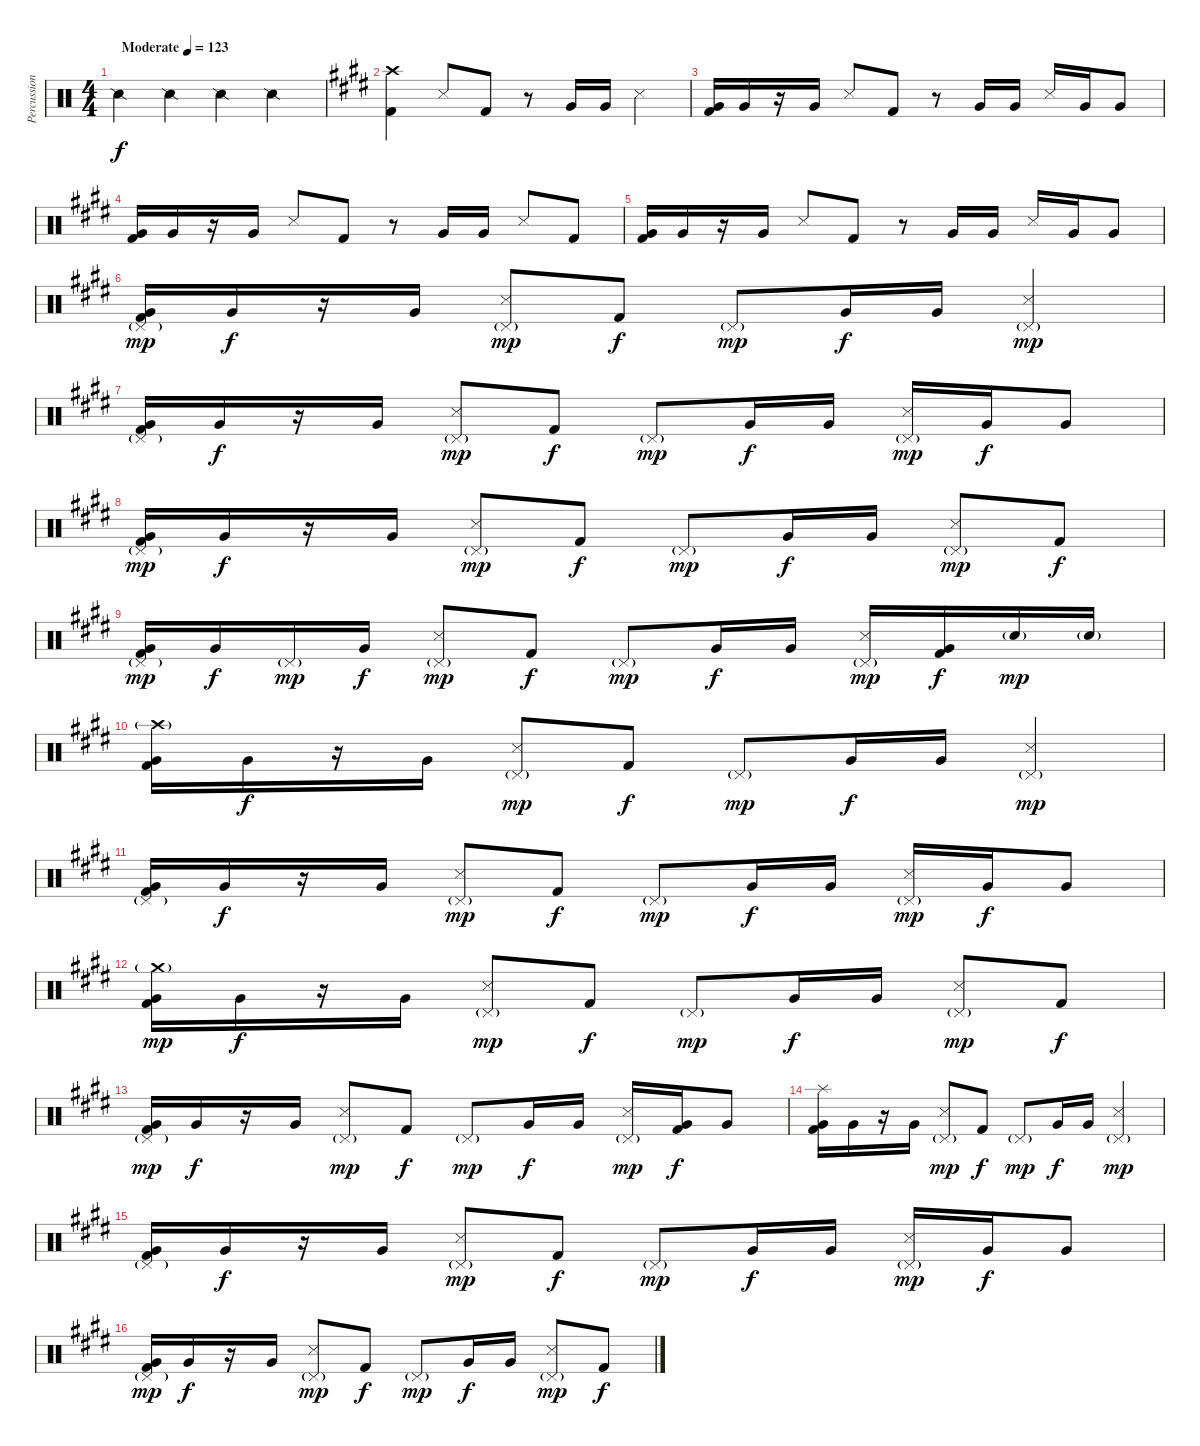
\track ("Percussioni" "Percussion") {instrument percussion}
\staff {score}
\articulation defaults
\ts (4 4)
\tempo (123 "Moderate")
\clef neutral
\ks c "Snare (side stick) 2".4{dy f} "Snare (side stick) 2".4 "Snare (side stick) 2".4 "Snare (side stick) 2".4
|
\ks e
("Crash high (hit)" "Kick (hit) 2").4 "Metronome (hit)".8 "Kick (hit) 2".8 r.8 "Very Low Tom (hit)".16 "Very Low Tom (hit)".16 "Metronome (hit)".4 |
("Very Low Tom (hit)" "Kick (hit) 2").16 "Very Low Tom (hit)".16 r.16 "Very Low Tom (hit)".16 "Metronome (hit)".8 "Kick (hit) 2".8 r.8 "Very Low Tom (hit)".16 "Very Low Tom (hit)".16 "Metronome (hit)".16 "Very Low Tom (hit)".16 "Very Low Tom (hit)".8 |
("Very Low Tom (hit)" "Kick (hit) 2").16 "Very Low Tom (hit)".16 r.16 "Very Low Tom (hit)".16 "Metronome (hit)".8 "Kick (hit) 2".8 r.8 "Very Low Tom (hit)".16 "Very Low Tom (hit)".16 "Metronome (hit)".8 "Kick (hit) 2".8 |
("Very Low Tom (hit)" "Kick (hit) 2").16 "Very Low Tom (hit)".16 r.16 "Very Low Tom (hit)".16 "Metronome (hit)".8 "Kick (hit) 2".8 r.8 "Very Low Tom (hit)".16 "Very Low Tom (hit)".16 "Metronome (hit)".16 "Very Low Tom (hit)".16 "Very Low Tom (hit)".8 |
("Pedal Hi-Hat (hit)"{g} "Very Low Tom (hit)" "Kick (hit) 2").16{dy mp} "Very Low Tom (hit)".16{dy f} r.16 "Very Low Tom (hit)".16 ("Pedal Hi-Hat (hit)"{g} "Metronome (hit)").8{dy mp} "Kick (hit) 2".8{dy f} "Pedal Hi-Hat (hit)"{g}.8{dy mp} "Very Low Tom (hit)".16{dy f} "Very Low Tom (hit)".16 ("Pedal Hi-Hat (hit)"{g} "Metronome (hit)").4{dy mp} |
("Pedal Hi-Hat (hit)"{g} "Very Low Tom (hit)" "Kick (hit) 2").16 "Very Low Tom (hit)".16{dy f} r.16 "Very Low Tom (hit)".16 ("Pedal Hi-Hat (hit)"{g} "Metronome (hit)").8{dy mp} "Kick (hit) 2".8{dy f} "Pedal Hi-Hat (hit)"{g}.8{dy mp} "Very Low Tom (hit)".16{dy f} "Very Low Tom (hit)".16 ("Pedal Hi-Hat (hit)"{g} "Metronome (hit)").16{dy mp} "Very Low Tom (hit)".16{dy f} "Very Low Tom (hit)".8 |
("Pedal Hi-Hat (hit)"{g} "Very Low Tom (hit)" "Kick (hit) 2").16{dy mp} "Very Low Tom (hit)".16{dy f} r.16 "Very Low Tom (hit)".16 ("Pedal Hi-Hat (hit)"{g} "Metronome (hit)").8{dy mp} "Kick (hit) 2".8{dy f} "Pedal Hi-Hat (hit)"{g}.8{dy mp} "Very Low Tom (hit)".16{dy f} "Very Low Tom (hit)".16 ("Pedal Hi-Hat (hit)"{g} "Metronome (hit)").8{dy mp} "Kick (hit) 2".8{dy f} |
("Pedal Hi-Hat (hit)"{g} "Very Low Tom (hit)" "Kick (hit) 2").16{dy mp} "Very Low Tom (hit)".16{dy f} "Pedal Hi-Hat (hit)"{g}.16{dy mp} "Very Low Tom (hit)".16{dy f} ("Pedal Hi-Hat (hit)"{g} "Metronome (hit)").8{dy mp} "Kick (hit) 2".8{dy f} "Pedal Hi-Hat (hit)"{g}.8{dy mp} "Very Low Tom (hit)".16{dy f} "Very Low Tom (hit)".16 ("Pedal Hi-Hat (hit)"{g} "Metronome (hit)").16{dy mp} ("Very Low Tom (hit)" "Kick (hit) 2").16{dy f} "Electric Snare (hit)"{g}.16{dy mp} "Electric Snare (hit)"{g}.16 |
("Crash high (hit)"{g} "Very Low Tom (hit)" "Kick (hit) 2").16 "Very Low Tom (hit)".16{dy f} r.16 "Very Low Tom (hit)".16 ("Pedal Hi-Hat (hit)"{g} "Metronome (hit)").8{dy mp} "Kick (hit) 2".8{dy f} "Pedal Hi-Hat (hit)"{g}.8{dy mp} "Very Low Tom (hit)".16{dy f} "Very Low Tom (hit)".16 ("Pedal Hi-Hat (hit)"{g} "Metronome (hit)").4{dy mp} |
("Pedal Hi-Hat (hit)"{g} "Very Low Tom (hit)" "Kick (hit) 2").16 "Very Low Tom (hit)".16{dy f} r.16 "Very Low Tom (hit)".16 ("Pedal Hi-Hat (hit)"{g} "Metronome (hit)").8{dy mp} "Kick (hit) 2".8{dy f} "Pedal Hi-Hat (hit)"{g}.8{dy mp} "Very Low Tom (hit)".16{dy f} "Very Low Tom (hit)".16 ("Pedal Hi-Hat (hit)"{g} "Metronome (hit)").16{dy mp} "Very Low Tom (hit)".16{dy f} "Very Low Tom (hit)".8 |
("Crash medium (hit)"{g} "Very Low Tom (hit)" "Kick (hit) 2").16{dy mp} "Very Low Tom (hit)".16{dy f} r.16 "Very Low Tom (hit)".16 ("Pedal Hi-Hat (hit)"{g} "Metronome (hit)").8{dy mp} "Kick (hit) 2".8{dy f} "Pedal Hi-Hat (hit)"{g}.8{dy mp} "Very Low Tom (hit)".16{dy f} "Very Low Tom (hit)".16 ("Pedal Hi-Hat (hit)"{g} "Metronome (hit)").8{dy mp} "Kick (hit) 2".8{dy f} |
("Pedal Hi-Hat (hit)"{g} "Very Low Tom (hit)" "Kick (hit) 2").16{dy mp} "Very Low Tom (hit)".16{dy f} r.16 "Very Low Tom (hit)".16 ("Pedal Hi-Hat (hit)"{g} "Metronome (hit)").8{dy mp} "Kick (hit) 2".8{dy f} "Pedal Hi-Hat (hit)"{g}.8{dy mp} "Very Low Tom (hit)".16{dy f} "Very Low Tom (hit)".16 ("Pedal Hi-Hat (hit)"{g} "Metronome (hit)").16{dy mp} ("Very Low Tom (hit)" "Kick (hit) 2").16{dy f} "Very Low Tom (hit)".8 |
("Splash (hit)" "Very Low Tom (hit)" "Kick (hit) 2").16 "Very Low Tom (hit)".16 r.16 "Very Low Tom (hit)".16 ("Pedal Hi-Hat (hit)"{g} "Metronome (hit)").8{dy mp} "Kick (hit) 2".8{dy f} "Pedal Hi-Hat (hit)"{g}.8{dy mp} "Very Low Tom (hit)".16{dy f} "Very Low Tom (hit)".16 ("Pedal Hi-Hat (hit)"{g} "Metronome (hit)").4{dy mp} |
("Pedal Hi-Hat (hit)"{g} "Very Low Tom (hit)" "Kick (hit) 2").16 "Very Low Tom (hit)".16{dy f} r.16 "Very Low Tom (hit)".16 ("Pedal Hi-Hat (hit)"{g} "Metronome (hit)").8{dy mp} "Kick (hit) 2".8{dy f} "Pedal Hi-Hat (hit)"{g}.8{dy mp} "Very Low Tom (hit)".16{dy f} "Very Low Tom (hit)".16 ("Pedal Hi-Hat (hit)"{g} "Metronome (hit)").16{dy mp} "Very Low Tom (hit)".16{dy f} "Very Low Tom (hit)".8 |
("Pedal Hi-Hat (hit)"{g} "Very Low Tom (hit)" "Kick (hit) 2").16{dy mp} "Very Low Tom (hit)".16{dy f} r.16 "Very Low Tom (hit)".16 ("Pedal Hi-Hat (hit)"{g} "Metronome (hit)").8{dy mp} "Kick (hit) 2".8{dy f} "Pedal Hi-Hat (hit)"{g}.8{dy mp} "Very Low Tom (hit)".16{dy f} "Very Low Tom (hit)".16 ("Pedal Hi-Hat (hit)"{g} "Metronome (hit)").8{dy mp} "Kick (hit) 2".8{dy f}
